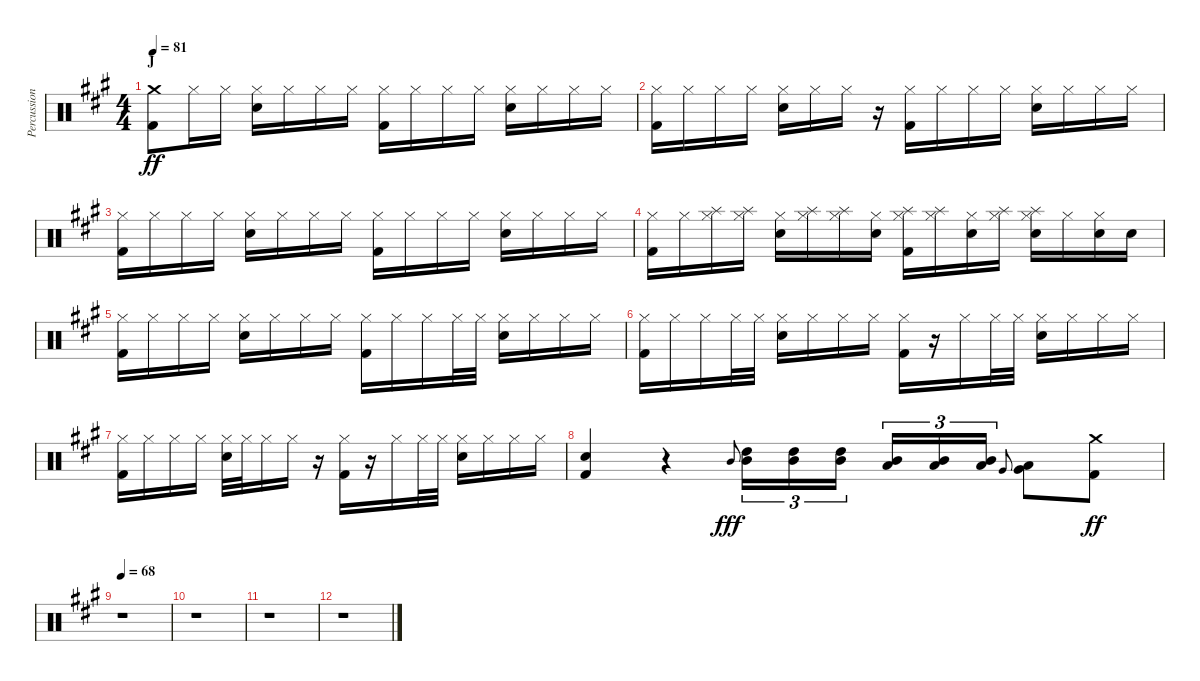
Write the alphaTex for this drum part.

\track ("Percussion" "Percussion") {instrument percussion}
\staff {score}
\articulation defaults
\ts (4 4)
\section ("" "J")
\tempo 81
\clef neutral
\ks f#minor
("Crash medium (hit)" "Kick (hit) 2").8{dy ff} "Hi-Hat (closed)".16 "Hi-Hat (closed)".16 ("Hi-Hat (closed)" "Snare (hit) 2").16 "Hi-Hat (closed)".16 "Hi-Hat (closed)".16 "Hi-Hat (closed)".16 ("Hi-Hat (closed)" "Kick (hit) 2").16 "Hi-Hat (closed)".16 "Hi-Hat (closed)".16 "Hi-Hat (closed)".16 ("Hi-Hat (closed)" "Snare (hit) 2").16 "Hi-Hat (closed)".16 "Hi-Hat (closed)".16 "Hi-Hat (closed)".16 |
("Hi-Hat (closed)" "Kick (hit) 2").16 "Hi-Hat (closed)".16 "Hi-Hat (closed)".16 "Hi-Hat (closed)".16 ("Hi-Hat (closed)" "Snare (hit) 2").16 "Hi-Hat (closed)".16 "Hi-Hat (closed)".16 r.16 ("Hi-Hat (closed)" "Kick (hit) 2").16 "Hi-Hat (closed)".16 "Hi-Hat (closed)".16 "Hi-Hat (closed)".16 ("Hi-Hat (closed)" "Snare (hit) 2").16 "Hi-Hat (closed)".16 "Hi-Hat (closed)".16 "Hi-Hat (closed)".16 |
("Hi-Hat (closed)" "Kick (hit) 2").16 "Hi-Hat (closed)".16 "Hi-Hat (closed)".16 "Hi-Hat (closed)".16 ("Hi-Hat (closed)" "Snare (hit) 2").16 "Hi-Hat (closed)".16 "Hi-Hat (closed)".16 "Hi-Hat (closed)".16 ("Hi-Hat (closed)" "Kick (hit) 2").16 "Hi-Hat (closed)".16 "Hi-Hat (closed)".16 "Hi-Hat (closed)".16 ("Hi-Hat (closed)" "Snare (hit) 2").16 "Hi-Hat (closed)".16 "Hi-Hat (closed)".16 "Hi-Hat (closed)".16 |
("Hi-Hat (closed)" "Kick (hit) 2").16 "Hi-Hat (closed)".16 ("Splash (hit)" "Hi-Hat (closed)").16 ("Splash (hit)" "Hi-Hat (closed)").16 ("Hi-Hat (closed)" "Snare (hit) 2").16 ("Splash (hit)" "Hi-Hat (closed)").16 ("Splash (hit)" "Hi-Hat (closed)").16 ("Hi-Hat (closed)" "Snare (hit) 2").16 ("Splash (hit)" "Hi-Hat (closed)" "Kick (hit) 2").16 ("Splash (hit)" "Hi-Hat (closed)").16 ("Hi-Hat (closed)" "Snare (hit) 2").16 ("Splash (hit)" "Hi-Hat (closed)").16 ("Splash (hit)" "Hi-Hat (closed)" "Snare (hit) 2").16 "Hi-Hat (closed)".16 ("Hi-Hat (closed)" "Snare (hit) 2").16 "Snare (hit) 2".16 |
("Hi-Hat (closed)" "Kick (hit) 2").16 "Hi-Hat (closed)".16 "Hi-Hat (closed)".16 "Hi-Hat (closed)".16 ("Hi-Hat (closed)" "Snare (hit) 2").16 "Hi-Hat (closed)".16 "Hi-Hat (closed)".16 "Hi-Hat (closed)".16 ("Hi-Hat (closed)" "Kick (hit) 2").16 "Hi-Hat (closed)".16 "Hi-Hat (closed)".16 "Hi-Hat (closed)".32 "Hi-Hat (closed)".32 ("Hi-Hat (closed)" "Snare (hit) 2").16 "Hi-Hat (closed)".16 "Hi-Hat (closed)".16 "Hi-Hat (closed)".16 |
("Hi-Hat (closed)" "Kick (hit) 2").16 "Hi-Hat (closed)".16 "Hi-Hat (closed)".16 "Hi-Hat (closed)".32 "Hi-Hat (closed)".32 ("Hi-Hat (closed)" "Snare (hit) 2").16 "Hi-Hat (closed)".16 "Hi-Hat (closed)".16 "Hi-Hat (closed)".16 ("Hi-Hat (closed)" "Kick (hit) 2").16 r.16 "Hi-Hat (closed)".16 "Hi-Hat (closed)".32 "Hi-Hat (closed)".32 ("Hi-Hat (closed)" "Snare (hit) 2").16 "Hi-Hat (closed)".16 "Hi-Hat (closed)".16 "Hi-Hat (closed)".16 |
("Hi-Hat (closed)" "Kick (hit) 2").16 "Hi-Hat (closed)".16 "Hi-Hat (closed)".16 "Hi-Hat (closed)".16 ("Hi-Hat (closed)" "Snare (hit) 2").32 "Hi-Hat (closed)".32 "Hi-Hat (closed)".16 "Hi-Hat (closed)".16 r.16 ("Hi-Hat (closed)" "Kick (hit) 2").16 r.16 "Hi-Hat (closed)".16 "Hi-Hat (closed)".32 "Hi-Hat (closed)".32 ("Hi-Hat (closed)" "Snare (hit) 2").16 "Hi-Hat (closed)".16 "Hi-Hat (closed)".16 "Hi-Hat (closed)".16 |
("Snare (hit) 2" "Kick (hit) 2").4 r.4 "Mid Tom (hit)".8{gr onbeat dy fff} ("High Tom (hit)" "Mid Tom (hit)").16{tu (3 2)} ("High Tom (hit)" "Mid Tom (hit)").16{tu (3 2)} ("High Tom (hit)" "Mid Tom (hit)").16{tu (3 2) beam splitsecondary} ("Mid Tom (hit)" "Low Tom (hit)").16{tu (3 2)} ("Mid Tom (hit)" "Low Tom (hit)").16{tu (3 2)} ("Mid Tom (hit)" "Low Tom (hit)").16{tu (3 2)} "Very Low Tom (hit)".8{gr onbeat} ("Low Tom (hit)" "Very Low Tom (hit)").8 ("Crash medium (hit)" "Kick (hit) 2").8{dy ff} |
\tempo 68
r.1 |
r.1 |
r.1 |
r.1
